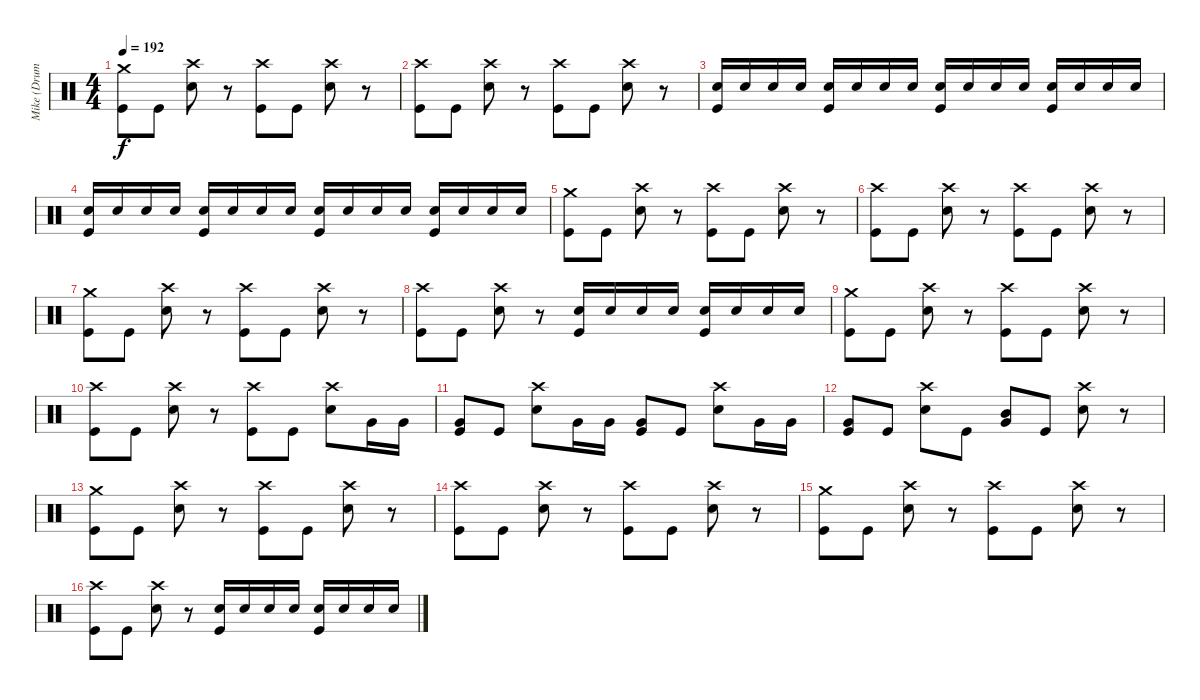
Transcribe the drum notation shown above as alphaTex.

\track ("Mike (Drums)" "Mike (Drum") {instrument percussion}
\staff {score}
\articulation defaults
\ts (4 4)
\tempo 192
\clef neutral
\ks c
("Crash medium (hit)" "Kick (hit)").8{dy f} "Kick (hit)".8 ("Crash high (hit)" "Snare (hit) 2").8 r.8 ("Crash high (hit)" "Kick (hit)").8 "Kick (hit)".8 ("Crash high (hit)" "Snare (hit) 2").8 r.8 |
("Crash high (hit)" "Kick (hit)").8 "Kick (hit)".8 ("Crash high (hit)" "Snare (hit) 2").8 r.8 ("Crash high (hit)" "Kick (hit)").8 "Kick (hit)".8 ("Crash high (hit)" "Snare (hit) 2").8 r.8 |
("Snare (hit) 2" "Kick (hit)").16 "Snare (hit) 2".16 "Snare (hit) 2".16 "Snare (hit) 2".16 ("Snare (hit) 2" "Kick (hit)").16 "Snare (hit) 2".16 "Snare (hit) 2".16 "Snare (hit) 2".16 ("Snare (hit) 2" "Kick (hit)").16 "Snare (hit) 2".16 "Snare (hit) 2".16 "Snare (hit) 2".16 ("Snare (hit) 2" "Kick (hit)").16 "Snare (hit) 2".16 "Snare (hit) 2".16 "Snare (hit) 2".16 |
("Snare (hit) 2" "Kick (hit)").16 "Snare (hit) 2".16 "Snare (hit) 2".16 "Snare (hit) 2".16 ("Snare (hit) 2" "Kick (hit)").16 "Snare (hit) 2".16 "Snare (hit) 2".16 "Snare (hit) 2".16 ("Snare (hit) 2" "Kick (hit)").16 "Snare (hit) 2".16 "Snare (hit) 2".16 "Snare (hit) 2".16 ("Snare (hit) 2" "Kick (hit)").16 "Snare (hit) 2".16 "Snare (hit) 2".16 "Snare (hit) 2".16 |
("Crash medium (hit)" "Kick (hit)").8 "Kick (hit)".8 ("Crash high (hit)" "Snare (hit) 2").8 r.8 ("Crash high (hit)" "Kick (hit)").8 "Kick (hit)".8 ("Crash high (hit)" "Snare (hit) 2").8 r.8 |
("Crash high (hit)" "Kick (hit)").8 "Kick (hit)".8 ("Crash high (hit)" "Snare (hit) 2").8 r.8 ("Crash high (hit)" "Kick (hit)").8 "Kick (hit)".8 ("Crash high (hit)" "Snare (hit) 2").8 r.8 |
("Crash medium (hit)" "Kick (hit)").8 "Kick (hit)".8 ("Crash high (hit)" "Snare (hit) 2").8 r.8 ("Crash high (hit)" "Kick (hit)").8 "Kick (hit)".8 ("Crash high (hit)" "Snare (hit) 2").8 r.8 |
("Crash high (hit)" "Kick (hit)").8 "Kick (hit)".8 ("Crash high (hit)" "Snare (hit) 2").8 r.8 ("Snare (hit) 2" "Kick (hit)").16 "Snare (hit) 2".16 "Snare (hit) 2".16 "Snare (hit) 2".16 ("Snare (hit) 2" "Kick (hit)").16 "Snare (hit) 2".16 "Snare (hit) 2".16 "Snare (hit) 2".16 |
("Crash medium (hit)" "Kick (hit)").8 "Kick (hit)".8 ("Crash high (hit)" "Snare (hit) 2").8 r.8 ("Crash high (hit)" "Kick (hit)").8 "Kick (hit)".8 ("Crash high (hit)" "Snare (hit) 2").8 r.8 |
("Crash high (hit)" "Kick (hit)").8 "Kick (hit)".8 ("Crash high (hit)" "Snare (hit) 2").8 r.8 ("Crash high (hit)" "Kick (hit)").8 "Kick (hit)".8 ("Crash high (hit)" "Snare (hit) 2").8 "Very Low Tom (hit)".16 "Very Low Tom (hit)".16 |
("Very Low Tom (hit)" "Kick (hit)").8 "Kick (hit)".8 ("Crash high (hit)" "Snare (hit) 2").8 "Very Low Tom (hit)".16 "Very Low Tom (hit)".16 ("Very Low Tom (hit)" "Kick (hit)").8 "Kick (hit)".8 ("Crash high (hit)" "Snare (hit) 2").8 "Very Low Tom (hit)".16 "Very Low Tom (hit)".16 |
("Very Low Tom (hit)" "Kick (hit)").8 "Kick (hit)".8 ("Crash high (hit)" "Snare (hit) 2").8 "Kick (hit)".8 ("Mid Tom (hit)" "Very Low Tom (hit)").8 "Kick (hit)".8 ("Crash high (hit)" "Snare (hit) 2").8 r.8 |
("Crash medium (hit)" "Kick (hit)").8 "Kick (hit)".8 ("Crash high (hit)" "Snare (hit) 2").8 r.8 ("Crash high (hit)" "Kick (hit)").8 "Kick (hit)".8 ("Crash high (hit)" "Snare (hit) 2").8 r.8 |
("Crash high (hit)" "Kick (hit)").8 "Kick (hit)".8 ("Crash high (hit)" "Snare (hit) 2").8 r.8 ("Crash high (hit)" "Kick (hit)").8 "Kick (hit)".8 ("Crash high (hit)" "Snare (hit) 2").8 r.8 |
("Crash medium (hit)" "Kick (hit)").8 "Kick (hit)".8 ("Crash high (hit)" "Snare (hit) 2").8 r.8 ("Crash high (hit)" "Kick (hit)").8 "Kick (hit)".8 ("Crash high (hit)" "Snare (hit) 2").8 r.8 |
("Crash high (hit)" "Kick (hit)").8 "Kick (hit)".8 ("Crash high (hit)" "Snare (hit) 2").8 r.8 ("Snare (hit) 2" "Kick (hit)").16 "Snare (hit) 2".16 "Snare (hit) 2".16 "Snare (hit) 2".16 ("Snare (hit) 2" "Kick (hit)").16 "Snare (hit) 2".16 "Snare (hit) 2".16 "Snare (hit) 2".16
